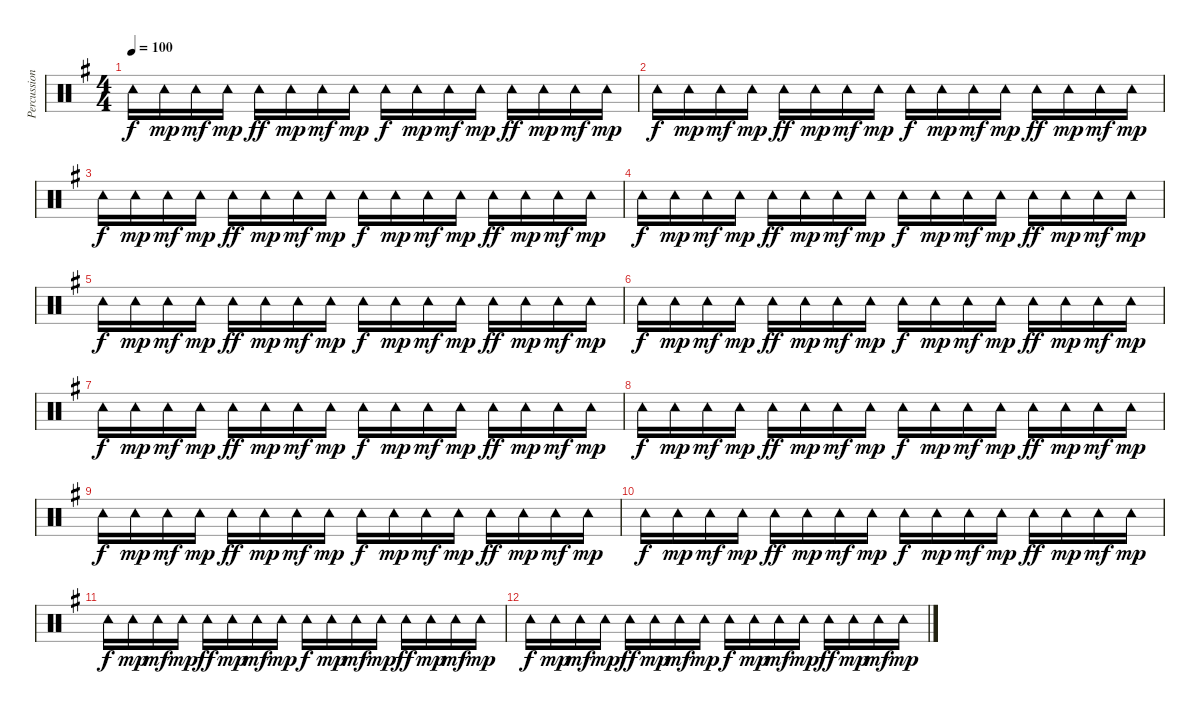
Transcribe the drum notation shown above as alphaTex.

\track ("Percussion" "Percussion") {instrument percussion}
\staff {score}
\articulation defaults
\ts (4 4)
\tempo 100
\clef neutral
\ks g "Tambourine (hit)".16{dy f} "Tambourine (hit)".16{dy mp} "Tambourine (hit)".16{dy mf} "Tambourine (hit)".16{dy mp} "Tambourine (hit)".16{dy ff} "Tambourine (hit)".16{dy mp} "Tambourine (hit)".16{dy mf} "Tambourine (hit)".16{dy mp} "Tambourine (hit)".16{dy f} "Tambourine (hit)".16{dy mp} "Tambourine (hit)".16{dy mf} "Tambourine (hit)".16{dy mp} "Tambourine (hit)".16{dy ff} "Tambourine (hit)".16{dy mp} "Tambourine (hit)".16{dy mf} "Tambourine (hit)".16{dy mp}
|
"Tambourine (hit)".16{dy f} "Tambourine (hit)".16{dy mp} "Tambourine (hit)".16{dy mf} "Tambourine (hit)".16{dy mp} "Tambourine (hit)".16{dy ff} "Tambourine (hit)".16{dy mp} "Tambourine (hit)".16{dy mf} "Tambourine (hit)".16{dy mp} "Tambourine (hit)".16{dy f} "Tambourine (hit)".16{dy mp} "Tambourine (hit)".16{dy mf} "Tambourine (hit)".16{dy mp} "Tambourine (hit)".16{dy ff} "Tambourine (hit)".16{dy mp} "Tambourine (hit)".16{dy mf} "Tambourine (hit)".16{dy mp} |
"Tambourine (hit)".16{dy f} "Tambourine (hit)".16{dy mp} "Tambourine (hit)".16{dy mf} "Tambourine (hit)".16{dy mp} "Tambourine (hit)".16{dy ff} "Tambourine (hit)".16{dy mp} "Tambourine (hit)".16{dy mf} "Tambourine (hit)".16{dy mp} "Tambourine (hit)".16{dy f} "Tambourine (hit)".16{dy mp} "Tambourine (hit)".16{dy mf} "Tambourine (hit)".16{dy mp} "Tambourine (hit)".16{dy ff} "Tambourine (hit)".16{dy mp} "Tambourine (hit)".16{dy mf} "Tambourine (hit)".16{dy mp} |
"Tambourine (hit)".16{dy f} "Tambourine (hit)".16{dy mp} "Tambourine (hit)".16{dy mf} "Tambourine (hit)".16{dy mp} "Tambourine (hit)".16{dy ff} "Tambourine (hit)".16{dy mp} "Tambourine (hit)".16{dy mf} "Tambourine (hit)".16{dy mp} "Tambourine (hit)".16{dy f} "Tambourine (hit)".16{dy mp} "Tambourine (hit)".16{dy mf} "Tambourine (hit)".16{dy mp} "Tambourine (hit)".16{dy ff} "Tambourine (hit)".16{dy mp} "Tambourine (hit)".16{dy mf} "Tambourine (hit)".16{dy mp} |
"Tambourine (hit)".16{dy f} "Tambourine (hit)".16{dy mp} "Tambourine (hit)".16{dy mf} "Tambourine (hit)".16{dy mp} "Tambourine (hit)".16{dy ff} "Tambourine (hit)".16{dy mp} "Tambourine (hit)".16{dy mf} "Tambourine (hit)".16{dy mp} "Tambourine (hit)".16{dy f} "Tambourine (hit)".16{dy mp} "Tambourine (hit)".16{dy mf} "Tambourine (hit)".16{dy mp} "Tambourine (hit)".16{dy ff} "Tambourine (hit)".16{dy mp} "Tambourine (hit)".16{dy mf} "Tambourine (hit)".16{dy mp} |
"Tambourine (hit)".16{dy f} "Tambourine (hit)".16{dy mp} "Tambourine (hit)".16{dy mf} "Tambourine (hit)".16{dy mp} "Tambourine (hit)".16{dy ff} "Tambourine (hit)".16{dy mp} "Tambourine (hit)".16{dy mf} "Tambourine (hit)".16{dy mp} "Tambourine (hit)".16{dy f} "Tambourine (hit)".16{dy mp} "Tambourine (hit)".16{dy mf} "Tambourine (hit)".16{dy mp} "Tambourine (hit)".16{dy ff} "Tambourine (hit)".16{dy mp} "Tambourine (hit)".16{dy mf} "Tambourine (hit)".16{dy mp} |
"Tambourine (hit)".16{dy f volume 5} "Tambourine (hit)".16{dy mp} "Tambourine (hit)".16{dy mf} "Tambourine (hit)".16{dy mp} "Tambourine (hit)".16{dy ff} "Tambourine (hit)".16{dy mp} "Tambourine (hit)".16{dy mf} "Tambourine (hit)".16{dy mp} "Tambourine (hit)".16{dy f} "Tambourine (hit)".16{dy mp} "Tambourine (hit)".16{dy mf} "Tambourine (hit)".16{dy mp} "Tambourine (hit)".16{dy ff} "Tambourine (hit)".16{dy mp} "Tambourine (hit)".16{dy mf} "Tambourine (hit)".16{dy mp} |
"Tambourine (hit)".16{dy f} "Tambourine (hit)".16{dy mp} "Tambourine (hit)".16{dy mf} "Tambourine (hit)".16{dy mp} "Tambourine (hit)".16{dy ff} "Tambourine (hit)".16{dy mp} "Tambourine (hit)".16{dy mf} "Tambourine (hit)".16{dy mp} "Tambourine (hit)".16{dy f} "Tambourine (hit)".16{dy mp} "Tambourine (hit)".16{dy mf} "Tambourine (hit)".16{dy mp} "Tambourine (hit)".16{dy ff} "Tambourine (hit)".16{dy mp} "Tambourine (hit)".16{dy mf} "Tambourine (hit)".16{dy mp} |
"Tambourine (hit)".16{dy f} "Tambourine (hit)".16{dy mp} "Tambourine (hit)".16{dy mf} "Tambourine (hit)".16{dy mp} "Tambourine (hit)".16{dy ff} "Tambourine (hit)".16{dy mp} "Tambourine (hit)".16{dy mf} "Tambourine (hit)".16{dy mp} "Tambourine (hit)".16{dy f} "Tambourine (hit)".16{dy mp} "Tambourine (hit)".16{dy mf} "Tambourine (hit)".16{dy mp} "Tambourine (hit)".16{dy ff} "Tambourine (hit)".16{dy mp} "Tambourine (hit)".16{dy mf} "Tambourine (hit)".16{dy mp} |
"Tambourine (hit)".16{dy f} "Tambourine (hit)".16{dy mp} "Tambourine (hit)".16{dy mf} "Tambourine (hit)".16{dy mp} "Tambourine (hit)".16{dy ff} "Tambourine (hit)".16{dy mp} "Tambourine (hit)".16{dy mf} "Tambourine (hit)".16{dy mp} "Tambourine (hit)".16{dy f} "Tambourine (hit)".16{dy mp} "Tambourine (hit)".16{dy mf} "Tambourine (hit)".16{dy mp} "Tambourine (hit)".16{dy ff} "Tambourine (hit)".16{dy mp} "Tambourine (hit)".16{dy mf} "Tambourine (hit)".16{dy mp} |
"Tambourine (hit)".16{dy f volume 0} "Tambourine (hit)".16{dy mp} "Tambourine (hit)".16{dy mf} "Tambourine (hit)".16{dy mp} "Tambourine (hit)".16{dy ff} "Tambourine (hit)".16{dy mp} "Tambourine (hit)".16{dy mf} "Tambourine (hit)".16{dy mp} "Tambourine (hit)".16{dy f} "Tambourine (hit)".16{dy mp} "Tambourine (hit)".16{dy mf} "Tambourine (hit)".16{dy mp} "Tambourine (hit)".16{dy ff} "Tambourine (hit)".16{dy mp} "Tambourine (hit)".16{dy mf} "Tambourine (hit)".16{dy mp} |
"Tambourine (hit)".16{dy f} "Tambourine (hit)".16{dy mp} "Tambourine (hit)".16{dy mf} "Tambourine (hit)".16{dy mp} "Tambourine (hit)".16{dy ff} "Tambourine (hit)".16{dy mp} "Tambourine (hit)".16{dy mf} "Tambourine (hit)".16{dy mp} "Tambourine (hit)".16{dy f} "Tambourine (hit)".16{dy mp} "Tambourine (hit)".16{dy mf} "Tambourine (hit)".16{dy mp} "Tambourine (hit)".16{dy ff} "Tambourine (hit)".16{dy mp} "Tambourine (hit)".16{dy mf} "Tambourine (hit)".16{dy mp}
